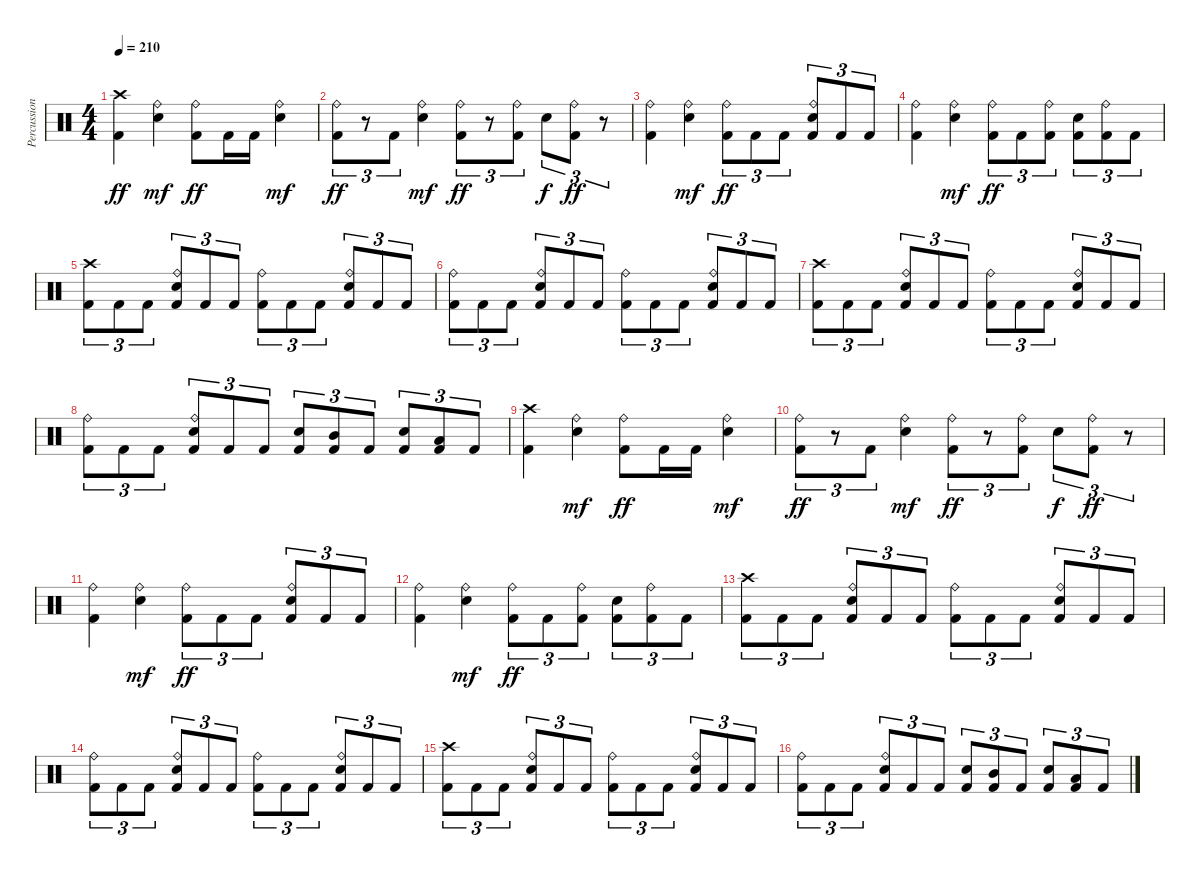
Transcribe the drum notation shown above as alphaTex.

\track ("Percussion" "Percussion") {instrument percussion}
\staff {score}
\articulation defaults
\ts (4 4)
\tempo 210
\clef neutral
\ks c
("Crash high (hit)" "Kick (hit) 2").4{dy ff} ("Ride (bell)" "Snare (hit) 2").4{dy mf} ("Ride (bell)" "Kick (hit) 2").8{dy ff} "Kick (hit) 2".16 "Kick (hit) 2".16 ("Ride (bell)" "Snare (hit) 2").4{dy mf} |
("Ride (bell)" "Kick (hit) 2").8{tu (3 2) dy ff} r.8{tu (3 2)} "Kick (hit) 2".8{tu (3 2)} ("Ride (bell)" "Snare (hit) 2").4{dy mf} ("Ride (bell)" "Kick (hit) 2").8{tu (3 2) dy ff} r.8{tu (3 2)} ("Ride (bell)" "Kick (hit) 2").8{tu (3 2)} "Snare (hit) 2".8{tu (3 2) dy f} ("Ride (bell)" "Kick (hit) 2").8{tu (3 2) dy ff} r.8{tu (3 2)} |
("Ride (bell)" "Kick (hit) 2").4 ("Ride (bell)" "Snare (hit) 2").4{dy mf} ("Ride (bell)" "Kick (hit) 2").8{tu (3 2) dy ff} "Kick (hit) 2".8{tu (3 2)} "Kick (hit) 2".8{tu (3 2)} ("Ride (bell)" "Snare (hit) 2" "Kick (hit) 2").8{tu (3 2)} "Kick (hit) 2".8{tu (3 2)} "Kick (hit) 2".8{tu (3 2)} |
("Ride (bell)" "Kick (hit) 2").4 ("Ride (bell)" "Snare (hit) 2").4{dy mf} ("Ride (bell)" "Kick (hit) 2").8{tu (3 2) dy ff} "Kick (hit) 2".8{tu (3 2)} ("Ride (bell)" "Kick (hit) 2").8{tu (3 2)} ("Snare (hit) 2" "Kick (hit) 2").8{tu (3 2)} ("Ride (bell)" "Kick (hit) 2").8{tu (3 2)} "Kick (hit) 2".8{tu (3 2)} |
("Crash high (hit)" "Kick (hit) 2").8{tu (3 2)} "Kick (hit) 2".8{tu (3 2)} "Kick (hit) 2".8{tu (3 2)} ("Ride (bell)" "Snare (hit) 2" "Kick (hit) 2").8{tu (3 2)} "Kick (hit) 2".8{tu (3 2)} "Kick (hit) 2".8{tu (3 2)} ("Ride (bell)" "Kick (hit) 2").8{tu (3 2)} "Kick (hit) 2".8{tu (3 2)} "Kick (hit) 2".8{tu (3 2)} ("Ride (bell)" "Snare (hit) 2" "Kick (hit) 2").8{tu (3 2)} "Kick (hit) 2".8{tu (3 2)} "Kick (hit) 2".8{tu (3 2)} |
("Ride (bell)" "Kick (hit) 2").8{tu (3 2)} "Kick (hit) 2".8{tu (3 2)} "Kick (hit) 2".8{tu (3 2)} ("Ride (bell)" "Snare (hit) 2" "Kick (hit) 2").8{tu (3 2)} "Kick (hit) 2".8{tu (3 2)} "Kick (hit) 2".8{tu (3 2)} ("Ride (bell)" "Kick (hit) 2").8{tu (3 2)} "Kick (hit) 2".8{tu (3 2)} "Kick (hit) 2".8{tu (3 2)} ("Ride (bell)" "Snare (hit) 2" "Kick (hit) 2").8{tu (3 2)} "Kick (hit) 2".8{tu (3 2)} "Kick (hit) 2".8{tu (3 2)} |
("Crash high (hit)" "Kick (hit) 2").8{tu (3 2)} "Kick (hit) 2".8{tu (3 2)} "Kick (hit) 2".8{tu (3 2)} ("Ride (bell)" "Snare (hit) 2" "Kick (hit) 2").8{tu (3 2)} "Kick (hit) 2".8{tu (3 2)} "Kick (hit) 2".8{tu (3 2)} ("Ride (bell)" "Kick (hit) 2").8{tu (3 2)} "Kick (hit) 2".8{tu (3 2)} "Kick (hit) 2".8{tu (3 2)} ("Ride (bell)" "Snare (hit) 2" "Kick (hit) 2").8{tu (3 2)} "Kick (hit) 2".8{tu (3 2)} "Kick (hit) 2".8{tu (3 2)} |
("Ride (bell)" "Kick (hit) 2").8{tu (3 2)} "Kick (hit) 2".8{tu (3 2)} "Kick (hit) 2".8{tu (3 2)} ("Ride (bell)" "Snare (hit) 2" "Kick (hit) 2").8{tu (3 2)} "Kick (hit) 2".8{tu (3 2)} "Kick (hit) 2".8{tu (3 2)} ("Snare (hit) 2" "Kick (hit) 2").8{tu (3 2)} ("Mid Tom (hit)" "Kick (hit) 2").8{tu (3 2)} "Kick (hit) 2".8{tu (3 2)} ("Snare (hit) 2" "Kick (hit) 2").8{tu (3 2)} ("Low Tom (hit)" "Kick (hit) 2").8{tu (3 2)} "Kick (hit) 2".8{tu (3 2)} |
("Crash high (hit)" "Kick (hit) 2").4 ("Ride (bell)" "Snare (hit) 2").4{dy mf} ("Ride (bell)" "Kick (hit) 2").8{dy ff} "Kick (hit) 2".16 "Kick (hit) 2".16 ("Ride (bell)" "Snare (hit) 2").4{dy mf} |
("Ride (bell)" "Kick (hit) 2").8{tu (3 2) dy ff} r.8{tu (3 2)} "Kick (hit) 2".8{tu (3 2)} ("Ride (bell)" "Snare (hit) 2").4{dy mf} ("Ride (bell)" "Kick (hit) 2").8{tu (3 2) dy ff} r.8{tu (3 2)} ("Ride (bell)" "Kick (hit) 2").8{tu (3 2)} "Snare (hit) 2".8{tu (3 2) dy f} ("Ride (bell)" "Kick (hit) 2").8{tu (3 2) dy ff} r.8{tu (3 2)} |
("Ride (bell)" "Kick (hit) 2").4 ("Ride (bell)" "Snare (hit) 2").4{dy mf} ("Ride (bell)" "Kick (hit) 2").8{tu (3 2) dy ff} "Kick (hit) 2".8{tu (3 2)} "Kick (hit) 2".8{tu (3 2)} ("Ride (bell)" "Snare (hit) 2" "Kick (hit) 2").8{tu (3 2)} "Kick (hit) 2".8{tu (3 2)} "Kick (hit) 2".8{tu (3 2)} |
("Ride (bell)" "Kick (hit) 2").4 ("Ride (bell)" "Snare (hit) 2").4{dy mf} ("Ride (bell)" "Kick (hit) 2").8{tu (3 2) dy ff} "Kick (hit) 2".8{tu (3 2)} ("Ride (bell)" "Kick (hit) 2").8{tu (3 2)} ("Snare (hit) 2" "Kick (hit) 2").8{tu (3 2)} ("Ride (bell)" "Kick (hit) 2").8{tu (3 2)} "Kick (hit) 2".8{tu (3 2)} |
("Crash high (hit)" "Kick (hit) 2").8{tu (3 2)} "Kick (hit) 2".8{tu (3 2)} "Kick (hit) 2".8{tu (3 2)} ("Ride (bell)" "Snare (hit) 2" "Kick (hit) 2").8{tu (3 2)} "Kick (hit) 2".8{tu (3 2)} "Kick (hit) 2".8{tu (3 2)} ("Ride (bell)" "Kick (hit) 2").8{tu (3 2)} "Kick (hit) 2".8{tu (3 2)} "Kick (hit) 2".8{tu (3 2)} ("Ride (bell)" "Snare (hit) 2" "Kick (hit) 2").8{tu (3 2)} "Kick (hit) 2".8{tu (3 2)} "Kick (hit) 2".8{tu (3 2)} |
("Ride (bell)" "Kick (hit) 2").8{tu (3 2)} "Kick (hit) 2".8{tu (3 2)} "Kick (hit) 2".8{tu (3 2)} ("Ride (bell)" "Snare (hit) 2" "Kick (hit) 2").8{tu (3 2)} "Kick (hit) 2".8{tu (3 2)} "Kick (hit) 2".8{tu (3 2)} ("Ride (bell)" "Kick (hit) 2").8{tu (3 2)} "Kick (hit) 2".8{tu (3 2)} "Kick (hit) 2".8{tu (3 2)} ("Ride (bell)" "Snare (hit) 2" "Kick (hit) 2").8{tu (3 2)} "Kick (hit) 2".8{tu (3 2)} "Kick (hit) 2".8{tu (3 2)} |
("Crash high (hit)" "Kick (hit) 2").8{tu (3 2)} "Kick (hit) 2".8{tu (3 2)} "Kick (hit) 2".8{tu (3 2)} ("Ride (bell)" "Snare (hit) 2" "Kick (hit) 2").8{tu (3 2)} "Kick (hit) 2".8{tu (3 2)} "Kick (hit) 2".8{tu (3 2)} ("Ride (bell)" "Kick (hit) 2").8{tu (3 2)} "Kick (hit) 2".8{tu (3 2)} "Kick (hit) 2".8{tu (3 2)} ("Ride (bell)" "Snare (hit) 2" "Kick (hit) 2").8{tu (3 2)} "Kick (hit) 2".8{tu (3 2)} "Kick (hit) 2".8{tu (3 2)} |
("Ride (bell)" "Kick (hit) 2").8{tu (3 2)} "Kick (hit) 2".8{tu (3 2)} "Kick (hit) 2".8{tu (3 2)} ("Ride (bell)" "Snare (hit) 2" "Kick (hit) 2").8{tu (3 2)} "Kick (hit) 2".8{tu (3 2)} "Kick (hit) 2".8{tu (3 2)} ("Snare (hit) 2" "Kick (hit) 2").8{tu (3 2)} ("Mid Tom (hit)" "Kick (hit) 2").8{tu (3 2)} "Kick (hit) 2".8{tu (3 2)} ("Snare (hit) 2" "Kick (hit) 2").8{tu (3 2)} ("Low Tom (hit)" "Kick (hit) 2").8{tu (3 2)} "Kick (hit) 2".8{tu (3 2)}
